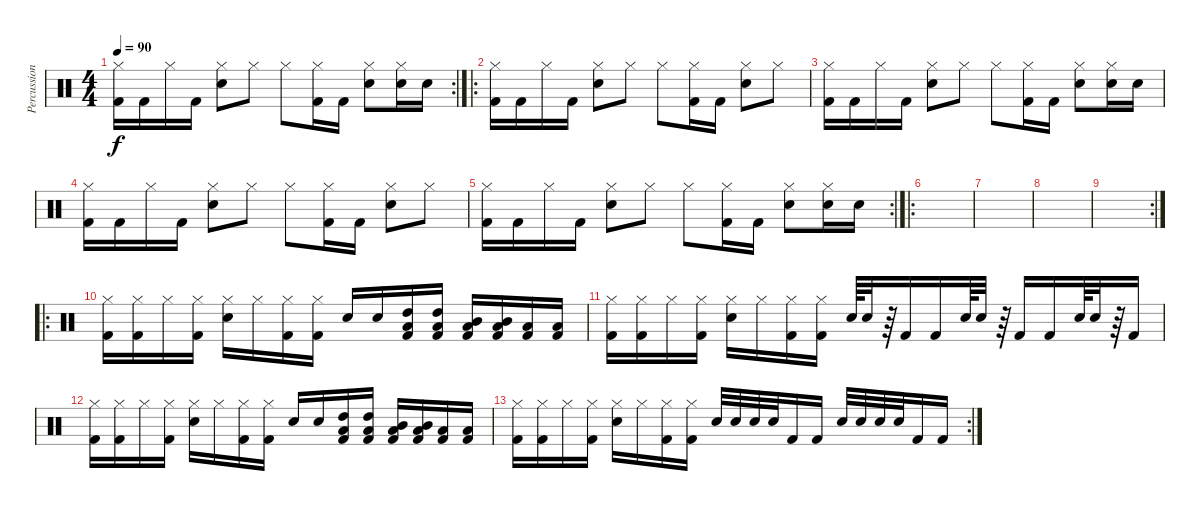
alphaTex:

\track ("Percussions" "Percussion") {instrument percussion}
\staff {score}
\articulation defaults
\rc 2
\ts (4 4)
\tempo 90
\clef neutral
\ks c
("Hi-Hat (closed)" "Kick (hit) 2").16{dy f} "Kick (hit) 2".16 "Hi-Hat (closed)".16 "Kick (hit) 2".16 ("Hi-Hat (closed)" "Electric Snare (hit)").8 "Hi-Hat (closed)".8 "Hi-Hat (closed)".8 ("Hi-Hat (closed)" "Kick (hit) 2").16 "Kick (hit) 2".16 ("Hi-Hat (closed)" "Electric Snare (hit)").8 ("Hi-Hat (closed)" "Electric Snare (hit)").16 "Electric Snare (hit)".16 |
\ro
("Hi-Hat (closed)" "Kick (hit) 2").16 "Kick (hit) 2".16 "Hi-Hat (closed)".16 "Kick (hit) 2".16 ("Hi-Hat (closed)" "Electric Snare (hit)").8 "Hi-Hat (closed)".8 "Hi-Hat (closed)".8 ("Hi-Hat (closed)" "Kick (hit) 2").16 "Kick (hit) 2".16 ("Hi-Hat (closed)" "Electric Snare (hit)").8 "Hi-Hat (closed)".8 |
("Hi-Hat (closed)" "Kick (hit) 2").16 "Kick (hit) 2".16 "Hi-Hat (closed)".16 "Kick (hit) 2".16 ("Hi-Hat (closed)" "Electric Snare (hit)").8 "Hi-Hat (closed)".8 "Hi-Hat (closed)".8 ("Hi-Hat (closed)" "Kick (hit) 2").16 "Kick (hit) 2".16 ("Hi-Hat (closed)" "Electric Snare (hit)").8 ("Hi-Hat (closed)" "Electric Snare (hit)").16 "Electric Snare (hit)".16 |
("Hi-Hat (closed)" "Kick (hit) 2").16 "Kick (hit) 2".16 "Hi-Hat (closed)".16 "Kick (hit) 2".16 ("Hi-Hat (closed)" "Electric Snare (hit)").8 "Hi-Hat (closed)".8 "Hi-Hat (closed)".8 ("Hi-Hat (closed)" "Kick (hit) 2").16 "Kick (hit) 2".16 ("Hi-Hat (closed)" "Electric Snare (hit)").8 "Hi-Hat (closed)".8 |
\rc 2
("Hi-Hat (closed)" "Kick (hit) 2").16 "Kick (hit) 2".16 "Hi-Hat (closed)".16 "Kick (hit) 2".16 ("Hi-Hat (closed)" "Electric Snare (hit)").8 "Hi-Hat (closed)".8 "Hi-Hat (closed)".8 ("Hi-Hat (closed)" "Kick (hit) 2").16 "Kick (hit) 2".16 ("Hi-Hat (closed)" "Electric Snare (hit)").8 ("Hi-Hat (closed)" "Electric Snare (hit)").16 "Electric Snare (hit)".16 |
\ro
|
|
|
\rc 2
|
\ro
("Hi-Hat (closed)" "Kick (hit) 2").16 ("Hi-Hat (closed)" "Kick (hit) 2").16 "Hi-Hat (closed)".16 ("Hi-Hat (closed)" "Kick (hit) 2").16 ("Hi-Hat (closed)" "Electric Snare (hit)").16 "Hi-Hat (closed)".16 ("Hi-Hat (closed)" "Kick (hit) 2").16 ("Hi-Hat (closed)" "Kick (hit) 2").16 "Electric Snare (hit)".16 "Electric Snare (hit)".16 ("Low Floor Tom (hit)" "High Tom (hit)" "Kick (hit) 2").16 ("Low Floor Tom (hit)" "High Tom (hit)" "Kick (hit) 2").16 ("Low Floor Tom (hit)" "Mid Tom (hit)" "Kick (hit) 2").16 ("Low Floor Tom (hit)" "Mid Tom (hit)" "Kick (hit) 2").16 ("Low Floor Tom (hit)" "Kick (hit) 2").16 ("Low Floor Tom (hit)" "Kick (hit) 2").16 |
("Hi-Hat (closed)" "Kick (hit) 2").16 ("Hi-Hat (closed)" "Kick (hit) 2").16 "Hi-Hat (closed)".16 ("Hi-Hat (closed)" "Kick (hit) 2").16 ("Hi-Hat (closed)" "Electric Snare (hit)").16 "Hi-Hat (closed)".16 ("Hi-Hat (closed)" "Kick (hit) 2").16 ("Hi-Hat (closed)" "Kick (hit) 2").16 "Electric Snare (hit)".64 "Electric Snare (hit)".32 r.64 "Kick (hit) 2".16 "Kick (hit) 2".16 "Electric Snare (hit)".64 "Electric Snare (hit)".32 r.64 "Kick (hit) 2".16 "Kick (hit) 2".16 "Electric Snare (hit)".64 "Electric Snare (hit)".32 r.64 "Kick (hit) 2".16 |
("Hi-Hat (closed)" "Kick (hit) 2").16 ("Hi-Hat (closed)" "Kick (hit) 2").16 "Hi-Hat (closed)".16 ("Hi-Hat (closed)" "Kick (hit) 2").16 ("Hi-Hat (closed)" "Electric Snare (hit)").16 "Hi-Hat (closed)".16 ("Hi-Hat (closed)" "Kick (hit) 2").16 ("Hi-Hat (closed)" "Kick (hit) 2").16 "Electric Snare (hit)".16 "Electric Snare (hit)".16 ("Low Floor Tom (hit)" "High Tom (hit)" "Kick (hit) 2").16 ("Low Floor Tom (hit)" "High Tom (hit)" "Kick (hit) 2").16 ("Low Floor Tom (hit)" "Mid Tom (hit)" "Kick (hit) 2").16 ("Low Floor Tom (hit)" "Mid Tom (hit)" "Kick (hit) 2").16 ("Low Floor Tom (hit)" "Kick (hit) 2").16 ("Low Floor Tom (hit)" "Kick (hit) 2").16 |
\rc 2
("Hi-Hat (closed)" "Kick (hit) 2").16 ("Hi-Hat (closed)" "Kick (hit) 2").16 "Hi-Hat (closed)".16 ("Hi-Hat (closed)" "Kick (hit) 2").16 ("Hi-Hat (closed)" "Electric Snare (hit)").16 "Hi-Hat (closed)".16 ("Hi-Hat (closed)" "Kick (hit) 2").16 ("Hi-Hat (closed)" "Kick (hit) 2").16 "Electric Snare (hit)".32 "Electric Snare (hit)".32 "Electric Snare (hit)".32 "Electric Snare (hit)".32 "Kick (hit) 2".16 "Kick (hit) 2".16 "Electric Snare (hit)".32 "Electric Snare (hit)".32 "Electric Snare (hit)".32 "Electric Snare (hit)".32 "Kick (hit) 2".16 "Kick (hit) 2".16
